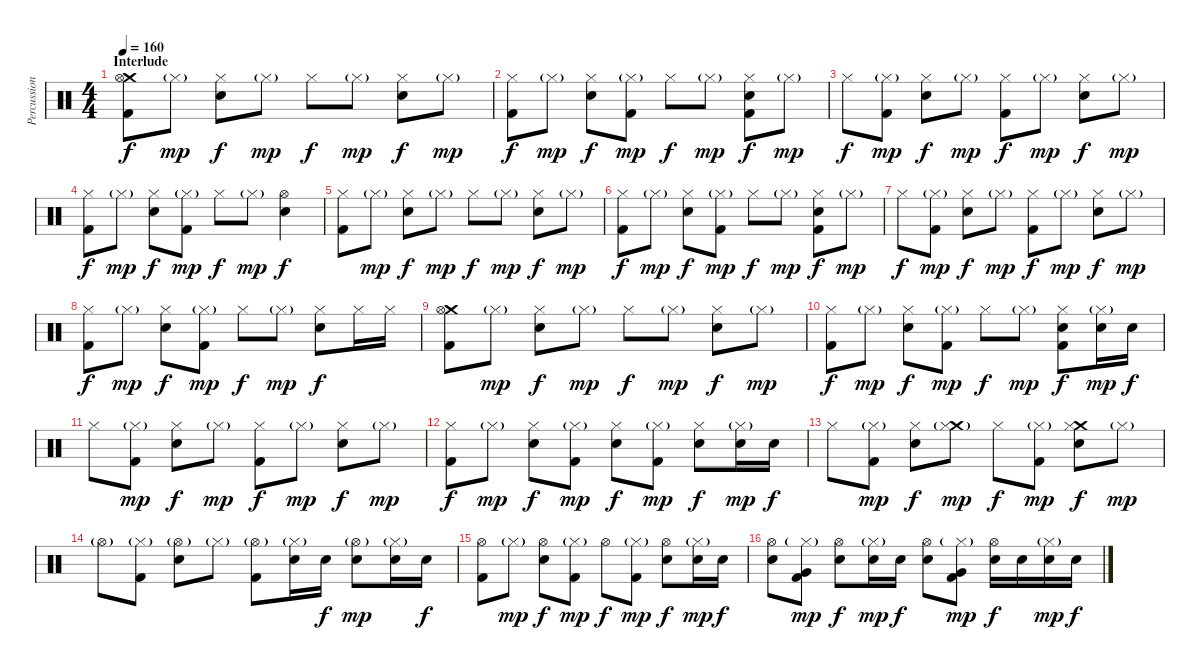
\track ("Percussions" "Percussion") {instrument percussion}
\staff {score}
\articulation defaults
\ts (4 4)
\section ("" "Interlude")
\tempo 160
\clef neutral
\ks c
("Crash medium (hit)" "Hi-Hat (open)" "Kick (hit) 2").8{dy f} "Hi-Hat (closed)"{g}.8{dy mp} ("Hi-Hat (closed)" "Snare (hit) 2").8{dy f} "Hi-Hat (closed)"{g}.8{dy mp} "Hi-Hat (closed)".8{dy f} "Hi-Hat (closed)"{g}.8{dy mp} ("Hi-Hat (closed)" "Snare (hit) 2").8{dy f} "Hi-Hat (closed)"{g}.8{dy mp} |
("Hi-Hat (closed)" "Kick (hit) 2").8{dy f} "Hi-Hat (closed)"{g}.8{dy mp} ("Hi-Hat (closed)" "Snare (hit) 2").8{dy f} ("Hi-Hat (closed)"{g} "Kick (hit) 2").8{dy mp} "Hi-Hat (closed)".8{dy f} "Hi-Hat (closed)"{g}.8{dy mp} ("Hi-Hat (closed)" "Snare (hit) 2" "Kick (hit) 2").8{dy f} "Hi-Hat (closed)"{g}.8{dy mp} |
"Hi-Hat (closed)".8{dy f} ("Hi-Hat (closed)"{g} "Kick (hit) 2").8{dy mp} ("Hi-Hat (closed)" "Snare (hit) 2").8{dy f} "Hi-Hat (closed)"{g}.8{dy mp} ("Hi-Hat (closed)" "Kick (hit) 2").8{dy f} "Hi-Hat (closed)"{g}.8{dy mp} ("Hi-Hat (closed)" "Snare (hit) 2").8{dy f} "Hi-Hat (closed)"{g}.8{dy mp} |
("Hi-Hat (closed)" "Kick (hit) 2").8{dy f} "Hi-Hat (closed)"{g}.8{dy mp} ("Hi-Hat (closed)" "Snare (hit) 2").8{dy f} ("Hi-Hat (closed)"{g} "Kick (hit) 2").8{dy mp} "Hi-Hat (closed)".8{dy f} "Hi-Hat (closed)"{g}.8{dy mp} ("Hi-Hat (open)" "Snare (hit) 2").4{dy f} |
("Hi-Hat (closed)" "Kick (hit) 2").8 "Hi-Hat (closed)"{g}.8{dy mp} ("Hi-Hat (closed)" "Snare (hit) 2").8{dy f} "Hi-Hat (closed)"{g}.8{dy mp} "Hi-Hat (closed)".8{dy f} "Hi-Hat (closed)"{g}.8{dy mp} ("Hi-Hat (closed)" "Snare (hit) 2").8{dy f} "Hi-Hat (closed)"{g}.8{dy mp} |
("Hi-Hat (closed)" "Kick (hit) 2").8{dy f} "Hi-Hat (closed)"{g}.8{dy mp} ("Hi-Hat (closed)" "Snare (hit) 2").8{dy f} ("Hi-Hat (closed)"{g} "Kick (hit) 2").8{dy mp} "Hi-Hat (closed)".8{dy f} "Hi-Hat (closed)"{g}.8{dy mp} ("Hi-Hat (closed)" "Snare (hit) 2" "Kick (hit) 2").8{dy f} "Hi-Hat (closed)"{g}.8{dy mp} |
"Hi-Hat (closed)".8{dy f} ("Hi-Hat (closed)"{g} "Kick (hit) 2").8{dy mp} ("Hi-Hat (closed)" "Snare (hit) 2").8{dy f} "Hi-Hat (closed)"{g}.8{dy mp} ("Hi-Hat (closed)" "Kick (hit) 2").8{dy f} "Hi-Hat (closed)"{g}.8{dy mp} ("Hi-Hat (closed)" "Snare (hit) 2").8{dy f} "Hi-Hat (closed)"{g}.8{dy mp} |
("Hi-Hat (closed)" "Kick (hit) 2").8{dy f} "Hi-Hat (closed)"{g}.8{dy mp} ("Hi-Hat (closed)" "Snare (hit) 2").8{dy f} ("Hi-Hat (closed)"{g} "Kick (hit) 2").8{dy mp} "Hi-Hat (closed)".8{dy f} "Hi-Hat (closed)"{g}.8{dy mp} ("Hi-Hat (closed)" "Snare (hit) 2").8{dy f} "Hi-Hat (closed)".16 "Hi-Hat (closed)".16 |
("Crash medium (hit)" "Hi-Hat (open)" "Kick (hit) 2").8 "Hi-Hat (closed)"{g}.8{dy mp} ("Hi-Hat (closed)" "Snare (hit) 2").8{dy f} "Hi-Hat (closed)"{g}.8{dy mp} "Hi-Hat (closed)".8{dy f} "Hi-Hat (closed)"{g}.8{dy mp} ("Hi-Hat (closed)" "Snare (hit) 2").8{dy f} "Hi-Hat (closed)"{g}.8{dy mp} |
("Hi-Hat (closed)" "Kick (hit) 2").8{dy f} "Hi-Hat (closed)"{g}.8{dy mp} ("Hi-Hat (closed)" "Snare (hit) 2").8{dy f} ("Hi-Hat (closed)"{g} "Kick (hit) 2").8{dy mp} "Hi-Hat (closed)".8{dy f} "Hi-Hat (closed)"{g}.8{dy mp} ("Hi-Hat (closed)" "Snare (hit) 2" "Kick (hit) 2").8{dy f} ("Hi-Hat (closed)"{g} "Snare (hit) 2").16{dy mp} "Snare (hit) 2".16{dy f} |
"Hi-Hat (closed)".8 ("Hi-Hat (closed)"{g} "Kick (hit) 2").8{dy mp} ("Hi-Hat (closed)" "Snare (hit) 2").8{dy f} "Hi-Hat (closed)"{g}.8{dy mp} ("Hi-Hat (closed)" "Kick (hit) 2").8{dy f} "Hi-Hat (closed)"{g}.8{dy mp} ("Hi-Hat (closed)" "Snare (hit) 2").8{dy f} "Hi-Hat (closed)"{g}.8{dy mp} |
("Hi-Hat (closed)" "Kick (hit) 2").8{dy f} "Hi-Hat (closed)"{g}.8{dy mp} ("Hi-Hat (closed)" "Snare (hit) 2").8{dy f} ("Hi-Hat (closed)"{g} "Kick (hit) 2").8{dy mp} ("Hi-Hat (closed)" "Snare (hit) 2").8{dy f} ("Hi-Hat (closed)"{g} "Kick (hit) 2").8{dy mp} ("Hi-Hat (closed)" "Snare (hit) 2").8{dy f} ("Hi-Hat (closed)"{g} "Snare (hit) 2").16{dy mp} "Snare (hit) 2".16{dy f} |
"Hi-Hat (closed)".8 ("Hi-Hat (closed)"{g} "Kick (hit) 2").8{dy mp} ("Hi-Hat (closed)" "Snare (hit) 2").8{dy f} ("Crash medium (hit)" "Hi-Hat (closed)"{g}).8{dy mp} "Hi-Hat (closed)".8{dy f} ("Hi-Hat (closed)"{g} "Kick (hit) 2").8{dy mp} ("Crash medium (hit)" "Hi-Hat (closed)" "Snare (hit) 2").8{dy f} "Hi-Hat (closed)"{g}.8{dy mp} |
"Hi-Hat (open)"{g}.8 ("Hi-Hat (closed)"{g} "Kick (hit) 2").8 ("Hi-Hat (open)"{g} "Snare (hit) 2").8 "Hi-Hat (closed)"{g}.8 ("Hi-Hat (open)"{g} "Kick (hit) 2").8 ("Hi-Hat (closed)"{g} "Snare (hit) 2").16 "Snare (hit) 2".16{dy f} ("Hi-Hat (open)"{g} "Snare (hit) 2").8{dy mp} ("Hi-Hat (closed)"{g} "Snare (hit) 2").16 "Snare (hit) 2".16{dy f} |
("Hi-Hat (open)" "Kick (hit) 2").8 "Hi-Hat (closed)"{g}.8{dy mp} ("Hi-Hat (open)" "Snare (hit) 2").8{dy f} ("Hi-Hat (closed)"{g} "Kick (hit) 2").8{dy mp} "Hi-Hat (open)".8{dy f} ("Hi-Hat (closed)"{g} "Kick (hit) 2").8{dy mp} ("Hi-Hat (open)" "Snare (hit) 2").8{dy f} ("Hi-Hat (closed)"{g} "Snare (hit) 2").16{dy mp} "Snare (hit) 2".16{dy f} |
("Hi-Hat (open)" "Snare (hit) 2").8 ("Hi-Hat (closed)"{g} "Very Low Tom (hit)" "Kick (hit) 2").8{dy mp} ("Hi-Hat (open)" "Snare (hit) 2").8{dy f} ("Hi-Hat (closed)"{g} "Snare (hit) 2").16{dy mp} "Snare (hit) 2".16{dy f} ("Hi-Hat (open)" "Snare (hit) 2").8 ("Hi-Hat (closed)"{g} "Very Low Tom (hit)" "Kick (hit) 2").8{dy mp} ("Hi-Hat (open)" "Snare (hit) 2").16{dy f} "Snare (hit) 2".16 ("Hi-Hat (closed)"{g} "Snare (hit) 2").16{dy mp} "Snare (hit) 2".16{dy f}
